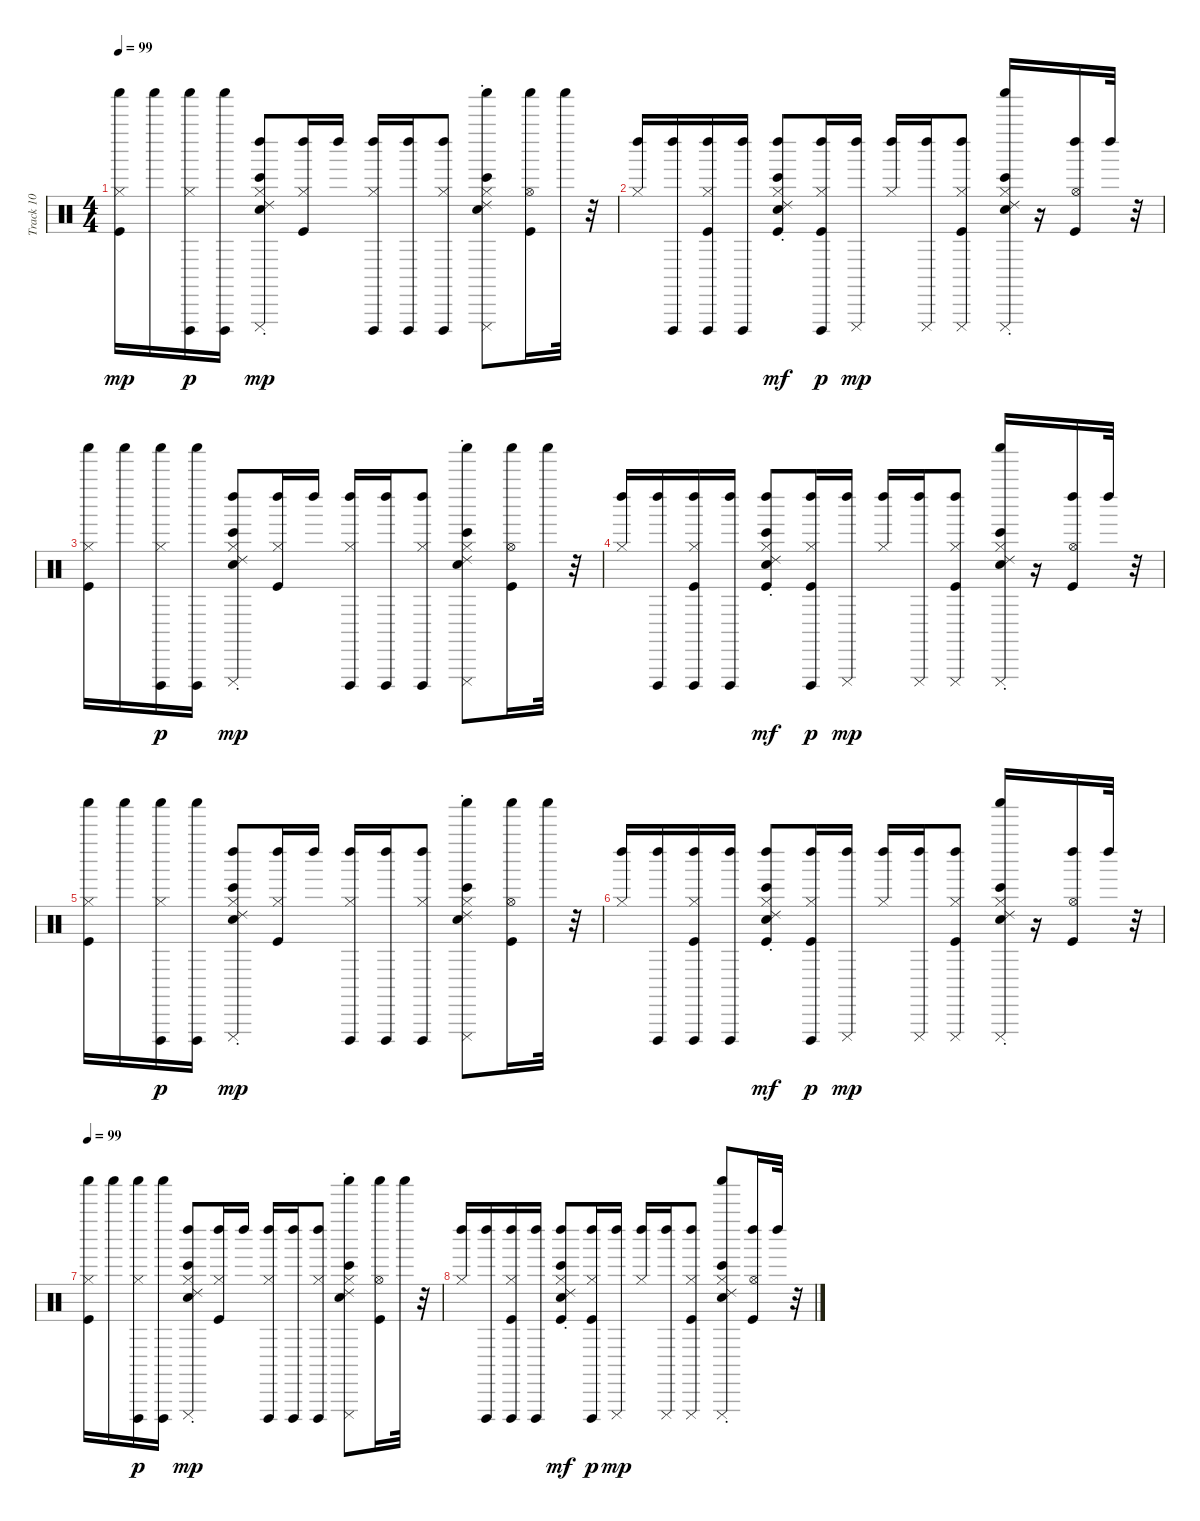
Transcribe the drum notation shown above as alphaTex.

\track ("Track 10" "Track 10") {instrument percussion}
\staff {score}
\articulation defaults
\ts (4 4)
\tempo 99
\clef neutral
\ks c
("Kick (hit)" "Hi-Hat (closed)" "Shaker (hit)").16{dy mp} "Shaker (hit)".16 ("Hi-Hat (closed)" "Cuica (open)" "Shaker (hit)").16{dy p} ("Cuica (open)" "Shaker (hit)").16 ("Bongo High (hit)" "Ride (choke) 2" "Electric Snare (hit)" "Hi-Hat (closed)" "Left Maraca (hit)" "Cuica (mute)").8{dy mp} ("Kick (hit)" "Hi-Hat (closed)" "Left Maraca (hit)").16 "Left Maraca (hit)".16 ("Hi-Hat (closed)" "Left Maraca (hit)" "Cuica (open)").16 ("Cuica (open)" "Left Maraca (hit)").16 ("Hi-Hat (closed)" "Left Maraca (hit)" "Cuica (open)").8 ("Bongo High (hit)" "Ride (choke) 2" "Electric Snare (hit)" "Hi-Hat (closed)" "Cuica (mute)" "Shaker (hit)").8 ("Kick (hit)" "Hi-Hat (open)" "Shaker (hit)").16 "Shaker (hit)".32 r.32 |
("Hi-Hat (closed)" "Left Maraca (hit)").16 ("Cuica (open)" "Left Maraca (hit)").16 ("Kick (hit)" "Hi-Hat (closed)" "Left Maraca (hit)" "Cuica (open)").16 ("Cuica (open)" "Left Maraca (hit)").16 ("Bongo High (hit)" "Ride (choke) 2" "Kick (hit)" "Electric Snare (hit)" "Hi-Hat (closed)" "Left Maraca (hit)").8{dy mf} ("Kick (hit)" "Hi-Hat (closed)" "Left Maraca (hit)" "Cuica (open)").16{dy p} ("Cuica (mute)" "Left Maraca (hit)").16{dy mp} ("Hi-Hat (closed)" "Left Maraca (hit)").16 ("Cuica (mute)" "Left Maraca (hit)").16 ("Kick (hit)" "Hi-Hat (closed)" "Left Maraca (hit)" "Cuica (mute)").8 ("Bongo High (hit)" "Ride (choke) 2" "Electric Snare (hit)" "Hi-Hat (closed)" "Cuica (mute)" "Shaker (hit)").16 r.16 ("Kick (hit)" "Hi-Hat (open)" "Left Maraca (hit)").16 "Left Maraca (hit)".32 r.32 |
("Kick (hit)" "Hi-Hat (closed)" "Shaker (hit)").16 "Shaker (hit)".16 ("Hi-Hat (closed)" "Cuica (open)" "Shaker (hit)").16{dy p} ("Cuica (open)" "Shaker (hit)").16 ("Bongo High (hit)" "Ride (choke) 2" "Electric Snare (hit)" "Hi-Hat (closed)" "Left Maraca (hit)" "Cuica (mute)").8{dy mp} ("Kick (hit)" "Hi-Hat (closed)" "Left Maraca (hit)").16 "Left Maraca (hit)".16 ("Hi-Hat (closed)" "Left Maraca (hit)" "Cuica (open)").16 ("Cuica (open)" "Left Maraca (hit)").16 ("Hi-Hat (closed)" "Left Maraca (hit)" "Cuica (open)").8 ("Bongo High (hit)" "Ride (choke) 2" "Electric Snare (hit)" "Hi-Hat (closed)" "Cuica (mute)" "Shaker (hit)").8 ("Kick (hit)" "Hi-Hat (open)" "Shaker (hit)").16 "Shaker (hit)".32 r.32 |
("Hi-Hat (closed)" "Left Maraca (hit)").16 ("Cuica (open)" "Left Maraca (hit)").16 ("Kick (hit)" "Hi-Hat (closed)" "Left Maraca (hit)" "Cuica (open)").16 ("Cuica (open)" "Left Maraca (hit)").16 ("Bongo High (hit)" "Ride (choke) 2" "Kick (hit)" "Electric Snare (hit)" "Hi-Hat (closed)" "Left Maraca (hit)").8{dy mf} ("Kick (hit)" "Hi-Hat (closed)" "Left Maraca (hit)" "Cuica (open)").16{dy p} ("Cuica (mute)" "Left Maraca (hit)").16{dy mp} ("Hi-Hat (closed)" "Left Maraca (hit)").16 ("Cuica (mute)" "Left Maraca (hit)").16 ("Kick (hit)" "Hi-Hat (closed)" "Left Maraca (hit)" "Cuica (mute)").8 ("Bongo High (hit)" "Ride (choke) 2" "Electric Snare (hit)" "Hi-Hat (closed)" "Cuica (mute)" "Shaker (hit)").16 r.16 ("Kick (hit)" "Hi-Hat (open)" "Left Maraca (hit)").16 "Left Maraca (hit)".32 r.32 |
("Kick (hit)" "Hi-Hat (closed)" "Shaker (hit)").16 "Shaker (hit)".16 ("Hi-Hat (closed)" "Cuica (open)" "Shaker (hit)").16{dy p} ("Cuica (open)" "Shaker (hit)").16 ("Bongo High (hit)" "Ride (choke) 2" "Electric Snare (hit)" "Hi-Hat (closed)" "Left Maraca (hit)" "Cuica (mute)").8{dy mp} ("Kick (hit)" "Hi-Hat (closed)" "Left Maraca (hit)").16 "Left Maraca (hit)".16 ("Hi-Hat (closed)" "Left Maraca (hit)" "Cuica (open)").16 ("Cuica (open)" "Left Maraca (hit)").16 ("Hi-Hat (closed)" "Left Maraca (hit)" "Cuica (open)").8 ("Bongo High (hit)" "Ride (choke) 2" "Electric Snare (hit)" "Hi-Hat (closed)" "Cuica (mute)" "Shaker (hit)").8 ("Kick (hit)" "Hi-Hat (open)" "Shaker (hit)").16 "Shaker (hit)".32 r.32 |
("Hi-Hat (closed)" "Left Maraca (hit)").16 ("Cuica (open)" "Left Maraca (hit)").16 ("Kick (hit)" "Hi-Hat (closed)" "Left Maraca (hit)" "Cuica (open)").16 ("Cuica (open)" "Left Maraca (hit)").16 ("Bongo High (hit)" "Ride (choke) 2" "Kick (hit)" "Electric Snare (hit)" "Hi-Hat (closed)" "Left Maraca (hit)").8{dy mf} ("Kick (hit)" "Hi-Hat (closed)" "Left Maraca (hit)" "Cuica (open)").16{dy p} ("Cuica (mute)" "Left Maraca (hit)").16{dy mp} ("Hi-Hat (closed)" "Left Maraca (hit)").16 ("Cuica (mute)" "Left Maraca (hit)").16 ("Kick (hit)" "Hi-Hat (closed)" "Left Maraca (hit)" "Cuica (mute)").8 ("Bongo High (hit)" "Ride (choke) 2" "Electric Snare (hit)" "Hi-Hat (closed)" "Cuica (mute)" "Shaker (hit)").16 r.16 ("Kick (hit)" "Hi-Hat (open)" "Left Maraca (hit)").16 "Left Maraca (hit)".32 r.32 |
\tempo 99
("Kick (hit)" "Hi-Hat (closed)" "Shaker (hit)").16 "Shaker (hit)".16 ("Hi-Hat (closed)" "Cuica (open)" "Shaker (hit)").16{dy p} ("Cuica (open)" "Shaker (hit)").16 ("Bongo High (hit)" "Ride (choke) 2" "Electric Snare (hit)" "Hi-Hat (closed)" "Left Maraca (hit)" "Cuica (mute)").8{dy mp} ("Kick (hit)" "Hi-Hat (closed)" "Left Maraca (hit)").16 "Left Maraca (hit)".16 ("Hi-Hat (closed)" "Left Maraca (hit)" "Cuica (open)").16 ("Cuica (open)" "Left Maraca (hit)").16 ("Hi-Hat (closed)" "Left Maraca (hit)" "Cuica (open)").8 ("Bongo High (hit)" "Ride (choke) 2" "Electric Snare (hit)" "Hi-Hat (closed)" "Cuica (mute)" "Shaker (hit)").8 ("Kick (hit)" "Hi-Hat (open)" "Shaker (hit)").16 "Shaker (hit)".32 r.32 |
("Hi-Hat (closed)" "Left Maraca (hit)").16 ("Cuica (open)" "Left Maraca (hit)").16 ("Kick (hit)" "Hi-Hat (closed)" "Left Maraca (hit)" "Cuica (open)").16 ("Cuica (open)" "Left Maraca (hit)").16 ("Bongo High (hit)" "Ride (choke) 2" "Kick (hit)" "Electric Snare (hit)" "Hi-Hat (closed)" "Left Maraca (hit)").8{dy mf} ("Kick (hit)" "Hi-Hat (closed)" "Left Maraca (hit)" "Cuica (open)").16{dy p} ("Cuica (mute)" "Left Maraca (hit)").16{dy mp} ("Hi-Hat (closed)" "Left Maraca (hit)").16 ("Cuica (mute)" "Left Maraca (hit)").16 ("Kick (hit)" "Hi-Hat (closed)" "Left Maraca (hit)" "Cuica (mute)").8 ("Bongo High (hit)" "Ride (choke) 2" "Electric Snare (hit)" "Hi-Hat (closed)" "Cuica (mute)" "Shaker (hit)").8 ("Kick (hit)" "Hi-Hat (open)" "Left Maraca (hit)").16 "Left Maraca (hit)".32 r.32
